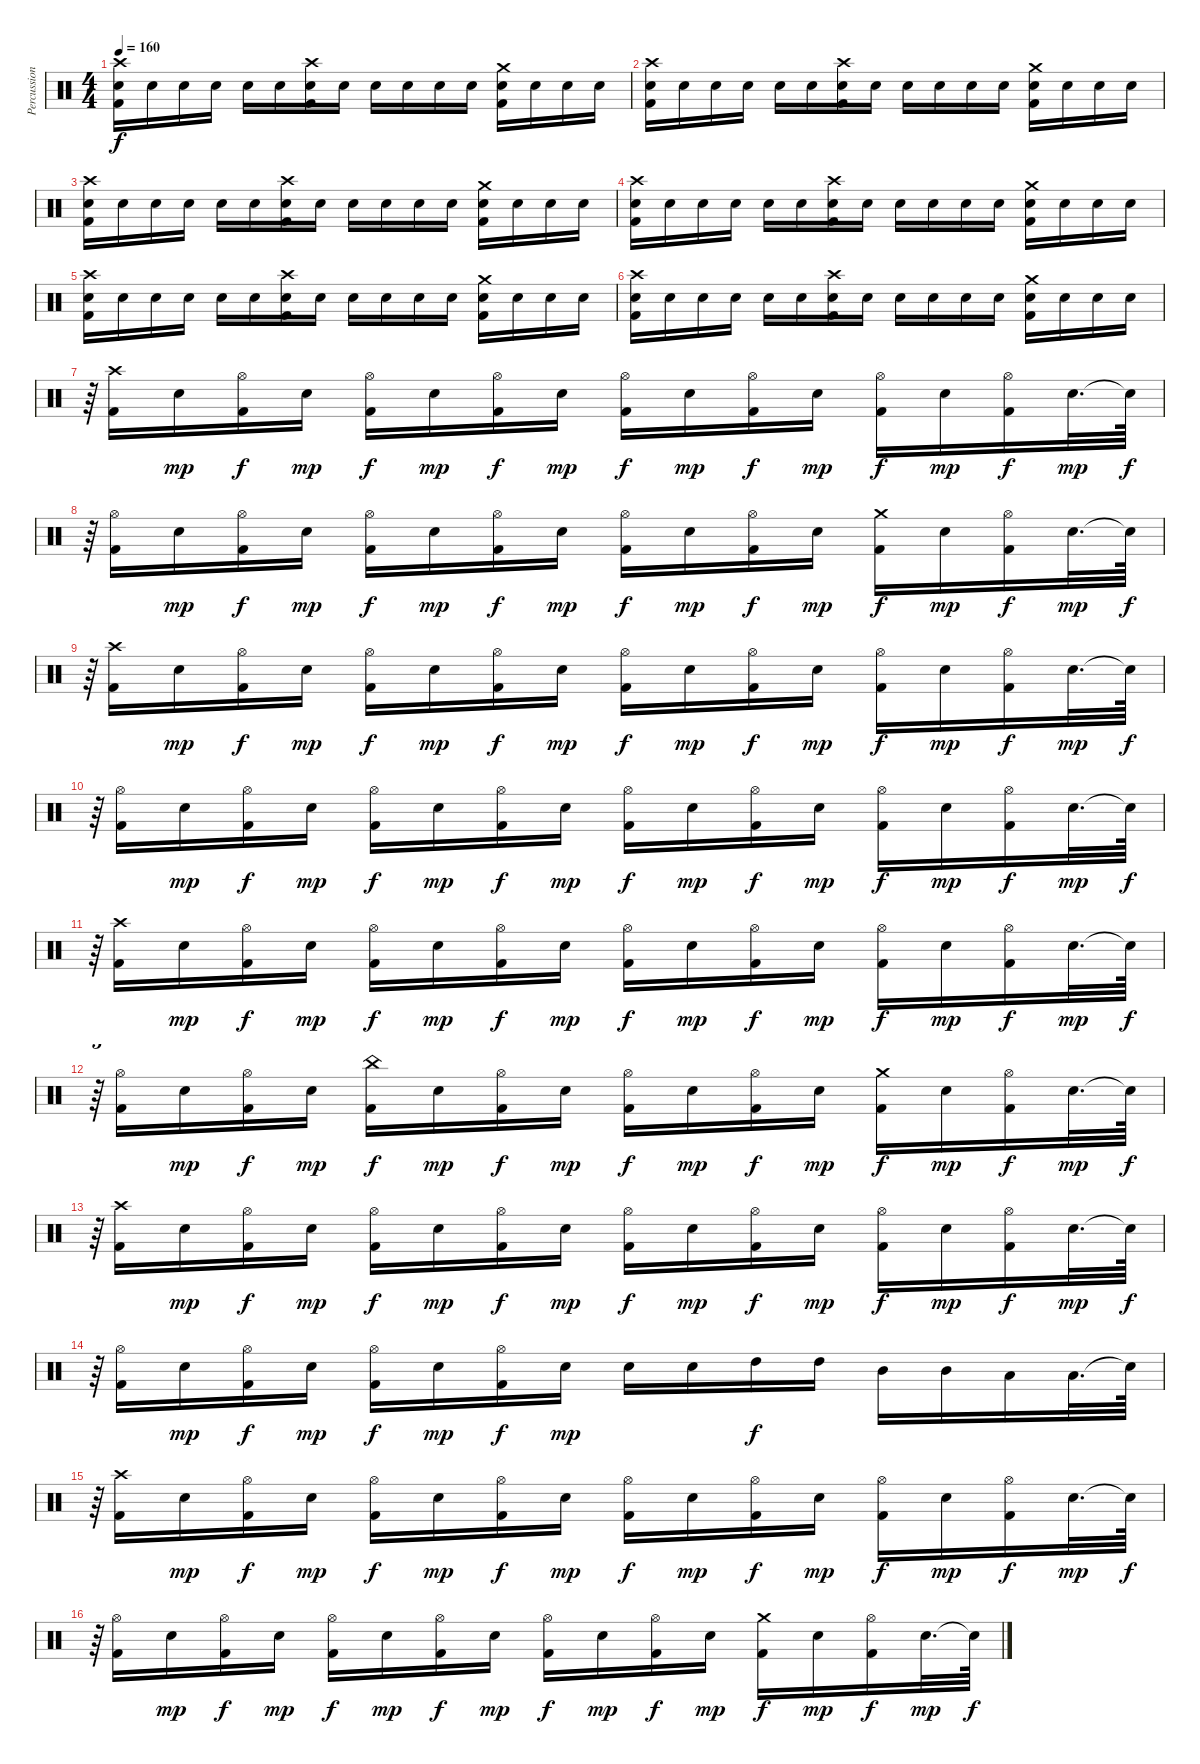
\track ("Percussion" "Percussion") {instrument percussion}
\staff {score}
\articulation defaults
\ts (4 4)
\tempo 160
\clef neutral
\ks c
("Snare (hit) 2" "Kick (hit) 2" "Crash high (hit)").16{dy f} "Snare (hit) 2".16 "Snare (hit) 2".16 "Snare (hit) 2".16 "Snare (hit) 2".16 "Snare (hit) 2".16 ("Snare (hit) 2" "Kick (hit) 2" "Crash high (hit)").16 "Snare (hit) 2".16 "Snare (hit) 2".16 "Snare (hit) 2".16 "Snare (hit) 2".16 "Snare (hit) 2".16 ("Snare (hit) 2" "Kick (hit) 2" "Crash medium (hit)").16 "Snare (hit) 2".16 "Snare (hit) 2".16 "Snare (hit) 2".16 |
("Snare (hit) 2" "Kick (hit) 2" "Crash high (hit)").16 "Snare (hit) 2".16 "Snare (hit) 2".16 "Snare (hit) 2".16 "Snare (hit) 2".16 "Snare (hit) 2".16 ("Snare (hit) 2" "Kick (hit) 2" "Crash high (hit)").16 "Snare (hit) 2".16 "Snare (hit) 2".16 "Snare (hit) 2".16 "Snare (hit) 2".16 "Snare (hit) 2".16 ("Snare (hit) 2" "Kick (hit) 2" "Crash medium (hit)").16 "Snare (hit) 2".16 "Snare (hit) 2".16 "Snare (hit) 2".16 |
("Snare (hit) 2" "Kick (hit) 2" "Crash high (hit)").16 "Snare (hit) 2".16 "Snare (hit) 2".16 "Snare (hit) 2".16 "Snare (hit) 2".16 "Snare (hit) 2".16 ("Snare (hit) 2" "Kick (hit) 2" "Crash high (hit)").16 "Snare (hit) 2".16 "Snare (hit) 2".16 "Snare (hit) 2".16 "Snare (hit) 2".16 "Snare (hit) 2".16 ("Snare (hit) 2" "Kick (hit) 2" "Crash medium (hit)").16 "Snare (hit) 2".16 "Snare (hit) 2".16 "Snare (hit) 2".16 |
("Snare (hit) 2" "Kick (hit) 2" "Crash high (hit)").16 "Snare (hit) 2".16 "Snare (hit) 2".16 "Snare (hit) 2".16 "Snare (hit) 2".16 "Snare (hit) 2".16 ("Snare (hit) 2" "Kick (hit) 2" "Crash high (hit)").16 "Snare (hit) 2".16 "Snare (hit) 2".16 "Snare (hit) 2".16 "Snare (hit) 2".16 "Snare (hit) 2".16 ("Snare (hit) 2" "Kick (hit) 2" "Crash medium (hit)").16 "Snare (hit) 2".16 "Snare (hit) 2".16 "Snare (hit) 2".16 |
("Snare (hit) 2" "Kick (hit) 2" "Crash high (hit)").16 "Snare (hit) 2".16 "Snare (hit) 2".16 "Snare (hit) 2".16 "Snare (hit) 2".16 "Snare (hit) 2".16 ("Snare (hit) 2" "Kick (hit) 2" "Crash high (hit)").16 "Snare (hit) 2".16 "Snare (hit) 2".16 "Snare (hit) 2".16 "Snare (hit) 2".16 "Snare (hit) 2".16 ("Snare (hit) 2" "Kick (hit) 2" "Crash medium (hit)").16 "Snare (hit) 2".16 "Snare (hit) 2".16 "Snare (hit) 2".16 |
("Snare (hit) 2" "Kick (hit) 2" "Crash high (hit)").16 "Snare (hit) 2".16 "Snare (hit) 2".16 "Snare (hit) 2".16 "Snare (hit) 2".16 "Snare (hit) 2".16 ("Snare (hit) 2" "Kick (hit) 2" "Crash high (hit)").16 "Snare (hit) 2".16 "Snare (hit) 2".16 "Snare (hit) 2".16 "Snare (hit) 2".16 "Snare (hit) 2".16 ("Snare (hit) 2" "Kick (hit) 2" "Crash medium (hit)").16 "Snare (hit) 2".16 "Snare (hit) 2".16 "Snare (hit) 2".16 |
r.64{tu (3 2)} ("Crash high (hit)" "Kick (hit) 2").16 "Electric Snare (hit)".16{dy mp} ("Hi-Hat (open)" "Kick (hit) 2").16{dy f} "Electric Snare (hit)".16{dy mp} ("Hi-Hat (open)" "Kick (hit) 2").16{dy f} "Electric Snare (hit)".16{dy mp} ("Hi-Hat (open)" "Kick (hit) 2").16{dy f} "Electric Snare (hit)".16{dy mp} ("Hi-Hat (open)" "Kick (hit) 2").16{dy f} "Electric Snare (hit)".16{dy mp} ("Hi-Hat (open)" "Kick (hit) 2").16{dy f} "Electric Snare (hit)".16{dy mp} ("Hi-Hat (open)" "Kick (hit) 2").16{dy f} "Electric Snare (hit)".16{dy mp} ("Hi-Hat (open)" "Kick (hit) 2").16{dy f} "Electric Snare (hit)".32{d dy mp} "Snare (hit)"{t}.64{dy f} |
r.64{tu (3 2)} ("Hi-Hat (open)" "Kick (hit) 2").16 "Electric Snare (hit)".16{dy mp} ("Hi-Hat (open)" "Kick (hit) 2").16{dy f} "Electric Snare (hit)".16{dy mp} ("Hi-Hat (open)" "Kick (hit) 2").16{dy f} "Electric Snare (hit)".16{dy mp} ("Hi-Hat (open)" "Kick (hit) 2").16{dy f} "Electric Snare (hit)".16{dy mp} ("Hi-Hat (open)" "Kick (hit) 2").16{dy f} "Electric Snare (hit)".16{dy mp} ("Hi-Hat (open)" "Kick (hit) 2").16{dy f} "Electric Snare (hit)".16{dy mp} ("Crash medium (hit)" "Kick (hit) 2").16{dy f} "Electric Snare (hit)".16{dy mp} ("Hi-Hat (open)" "Kick (hit) 2").16{dy f} "Electric Snare (hit)".32{d dy mp} "Snare (hit)"{t}.64{dy f} |
r.64{tu (3 2)} ("Crash high (hit)" "Kick (hit) 2").16 "Electric Snare (hit)".16{dy mp} ("Hi-Hat (open)" "Kick (hit) 2").16{dy f} "Electric Snare (hit)".16{dy mp} ("Hi-Hat (open)" "Kick (hit) 2").16{dy f} "Electric Snare (hit)".16{dy mp} ("Hi-Hat (open)" "Kick (hit) 2").16{dy f} "Electric Snare (hit)".16{dy mp} ("Hi-Hat (open)" "Kick (hit) 2").16{dy f} "Electric Snare (hit)".16{dy mp} ("Hi-Hat (open)" "Kick (hit) 2").16{dy f} "Electric Snare (hit)".16{dy mp} ("Hi-Hat (open)" "Kick (hit) 2").16{dy f} "Electric Snare (hit)".16{dy mp} ("Hi-Hat (open)" "Kick (hit) 2").16{dy f} "Electric Snare (hit)".32{d dy mp} "Snare (hit)"{t}.64{dy f} |
r.64{tu (3 2)} ("Hi-Hat (open)" "Kick (hit) 2").16 "Electric Snare (hit)".16{dy mp} ("Hi-Hat (open)" "Kick (hit) 2").16{dy f} "Electric Snare (hit)".16{dy mp} ("Hi-Hat (open)" "Kick (hit) 2").16{dy f} "Electric Snare (hit)".16{dy mp} ("Hi-Hat (open)" "Kick (hit) 2").16{dy f} "Electric Snare (hit)".16{dy mp} ("Hi-Hat (open)" "Kick (hit) 2").16{dy f} "Electric Snare (hit)".16{dy mp} ("Hi-Hat (open)" "Kick (hit) 2").16{dy f} "Electric Snare (hit)".16{dy mp} ("Hi-Hat (open)" "Kick (hit) 2").16{dy f} "Electric Snare (hit)".16{dy mp} ("Hi-Hat (open)" "Kick (hit) 2").16{dy f} "Electric Snare (hit)".32{d dy mp} "Snare (hit)"{t}.64{dy f} |
r.64{tu (3 2)} ("Crash high (hit)" "Kick (hit) 2").16 "Electric Snare (hit)".16{dy mp} ("Hi-Hat (open)" "Kick (hit) 2").16{dy f} "Electric Snare (hit)".16{dy mp} ("Hi-Hat (open)" "Kick (hit) 2").16{dy f} "Electric Snare (hit)".16{dy mp} ("Hi-Hat (open)" "Kick (hit) 2").16{dy f} "Electric Snare (hit)".16{dy mp} ("Hi-Hat (open)" "Kick (hit) 2").16{dy f} "Electric Snare (hit)".16{dy mp} ("Hi-Hat (open)" "Kick (hit) 2").16{dy f} "Electric Snare (hit)".16{dy mp} ("Hi-Hat (open)" "Kick (hit) 2").16{dy f} "Electric Snare (hit)".16{dy mp} ("Hi-Hat (open)" "Kick (hit) 2").16{dy f} "Electric Snare (hit)".32{d dy mp} "Snare (hit)"{t}.64{dy f} |
r.64{tu (3 2)} ("Hi-Hat (open)" "Kick (hit) 2").16 "Electric Snare (hit)".16{dy mp} ("Hi-Hat (open)" "Kick (hit) 2").16{dy f} "Electric Snare (hit)".16{dy mp} ("China (hit)" "Kick (hit) 2").16{dy f} "Electric Snare (hit)".16{dy mp} ("Hi-Hat (open)" "Kick (hit) 2").16{dy f} "Electric Snare (hit)".16{dy mp} ("Hi-Hat (open)" "Kick (hit) 2").16{dy f} "Electric Snare (hit)".16{dy mp} ("Hi-Hat (open)" "Kick (hit) 2").16{dy f} "Electric Snare (hit)".16{dy mp} ("Crash medium (hit)" "Kick (hit) 2").16{dy f} "Electric Snare (hit)".16{dy mp} ("Hi-Hat (open)" "Kick (hit) 2").16{dy f} "Electric Snare (hit)".32{d dy mp} "Snare (hit)"{t}.64{dy f} |
r.64{tu (3 2)} ("Crash high (hit)" "Kick (hit) 2").16 "Electric Snare (hit)".16{dy mp} ("Hi-Hat (open)" "Kick (hit) 2").16{dy f} "Electric Snare (hit)".16{dy mp} ("Hi-Hat (open)" "Kick (hit) 2").16{dy f} "Electric Snare (hit)".16{dy mp} ("Hi-Hat (open)" "Kick (hit) 2").16{dy f} "Electric Snare (hit)".16{dy mp} ("Hi-Hat (open)" "Kick (hit) 2").16{dy f} "Electric Snare (hit)".16{dy mp} ("Hi-Hat (open)" "Kick (hit) 2").16{dy f} "Electric Snare (hit)".16{dy mp} ("Hi-Hat (open)" "Kick (hit) 2").16{dy f} "Electric Snare (hit)".16{dy mp} ("Hi-Hat (open)" "Kick (hit) 2").16{dy f} "Electric Snare (hit)".32{d dy mp} "Snare (hit)"{t}.64{dy f} |
r.64{tu (3 2)} ("Hi-Hat (open)" "Kick (hit) 2").16 "Electric Snare (hit)".16{dy mp} ("Hi-Hat (open)" "Kick (hit) 2").16{dy f} "Electric Snare (hit)".16{dy mp} ("Hi-Hat (open)" "Kick (hit) 2").16{dy f} "Electric Snare (hit)".16{dy mp} ("Hi-Hat (open)" "Kick (hit) 2").16{dy f} "Electric Snare (hit)".16{dy mp} "Electric Snare (hit)".16 "Electric Snare (hit)".16 "High Tom (hit)".16{dy f} "High Tom (hit)".16 "Mid Tom (hit)".16 "Mid Tom (hit)".16 "Low Tom (hit)".16 "Low Tom (hit)".32{d} "Snare (hit)"{t}.64 |
r.64{tu (3 2)} ("Crash high (hit)" "Kick (hit) 2").16 "Electric Snare (hit)".16{dy mp} ("Hi-Hat (open)" "Kick (hit) 2").16{dy f} "Electric Snare (hit)".16{dy mp} ("Hi-Hat (open)" "Kick (hit) 2").16{dy f} "Electric Snare (hit)".16{dy mp} ("Hi-Hat (open)" "Kick (hit) 2").16{dy f} "Electric Snare (hit)".16{dy mp} ("Hi-Hat (open)" "Kick (hit) 2").16{dy f} "Electric Snare (hit)".16{dy mp} ("Hi-Hat (open)" "Kick (hit) 2").16{dy f} "Electric Snare (hit)".16{dy mp} ("Hi-Hat (open)" "Kick (hit) 2").16{dy f} "Electric Snare (hit)".16{dy mp} ("Hi-Hat (open)" "Kick (hit) 2").16{dy f} "Electric Snare (hit)".32{d dy mp} "Snare (hit)"{t}.64{dy f} |
r.64{tu (3 2)} ("Hi-Hat (open)" "Kick (hit) 2").16 "Electric Snare (hit)".16{dy mp} ("Hi-Hat (open)" "Kick (hit) 2").16{dy f} "Electric Snare (hit)".16{dy mp} ("Hi-Hat (open)" "Kick (hit) 2").16{dy f} "Electric Snare (hit)".16{dy mp} ("Hi-Hat (open)" "Kick (hit) 2").16{dy f} "Electric Snare (hit)".16{dy mp} ("Hi-Hat (open)" "Kick (hit) 2").16{dy f} "Electric Snare (hit)".16{dy mp} ("Hi-Hat (open)" "Kick (hit) 2").16{dy f} "Electric Snare (hit)".16{dy mp} ("Crash medium (hit)" "Kick (hit) 2").16{dy f} "Electric Snare (hit)".16{dy mp} ("Hi-Hat (open)" "Kick (hit) 2").16{dy f} "Electric Snare (hit)".32{d dy mp} "Snare (hit)"{t}.64{dy f}
